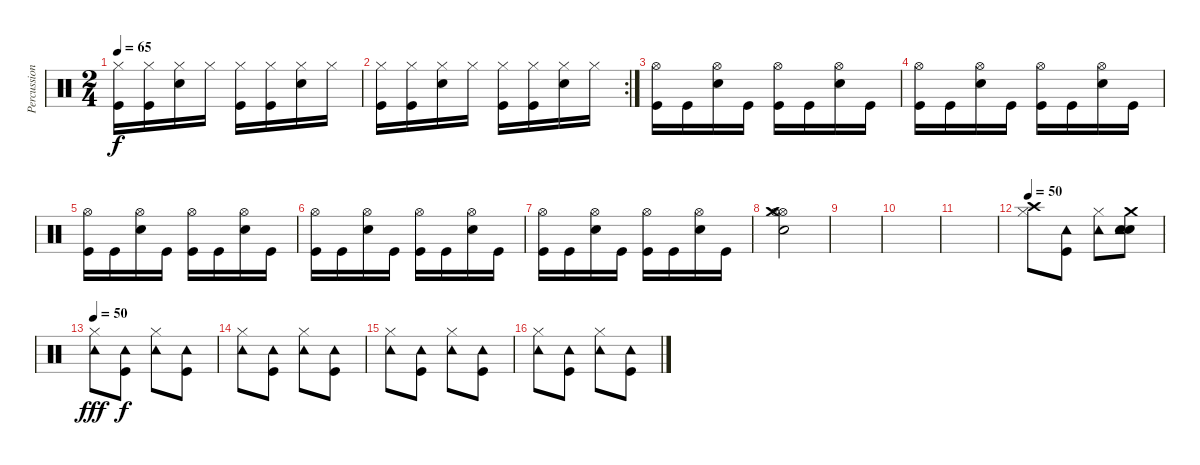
\track ("Percussion" "Percussion") {instrument percussion}
\staff {score}
\articulation defaults
\ts (2 4)
\tempo 65
\clef neutral
\ks c
("Hi-Hat (closed)" "Kick (hit)").16{dy f} ("Hi-Hat (closed)" "Kick (hit)").16 ("Hi-Hat (closed)" "Electric Snare (hit)").16 "Hi-Hat (closed)".16 ("Hi-Hat (closed)" "Kick (hit)").16 ("Hi-Hat (closed)" "Kick (hit)").16 ("Hi-Hat (closed)" "Electric Snare (hit)").16 "Hi-Hat (closed)".16 |
\rc 2
("Hi-Hat (closed)" "Kick (hit)").16 ("Hi-Hat (closed)" "Kick (hit)").16 ("Hi-Hat (closed)" "Electric Snare (hit)").16 "Hi-Hat (closed)".16 ("Hi-Hat (closed)" "Kick (hit)").16 ("Hi-Hat (closed)" "Kick (hit)").16 ("Hi-Hat (closed)" "Electric Snare (hit)").16 "Hi-Hat (closed)".16 |
("Hi-Hat (open)" "Kick (hit)").16 "Kick (hit)".16 ("Hi-Hat (open)" "Electric Snare (hit)").16 "Kick (hit)".16 ("Hi-Hat (open)" "Kick (hit)").16 "Kick (hit)".16 ("Hi-Hat (open)" "Electric Snare (hit)").16 "Kick (hit)".16 |
("Hi-Hat (open)" "Kick (hit)").16 "Kick (hit)".16 ("Hi-Hat (open)" "Electric Snare (hit)").16 "Kick (hit)".16 ("Hi-Hat (open)" "Kick (hit)").16 "Kick (hit)".16 ("Hi-Hat (open)" "Electric Snare (hit)").16 "Kick (hit)".16 |
("Hi-Hat (open)" "Kick (hit)").16 "Kick (hit)".16 ("Hi-Hat (open)" "Electric Snare (hit)").16 "Kick (hit)".16 ("Hi-Hat (open)" "Kick (hit)").16 "Kick (hit)".16 ("Hi-Hat (open)" "Electric Snare (hit)").16 "Kick (hit)".16 |
("Hi-Hat (open)" "Kick (hit)").16 "Kick (hit)".16 ("Hi-Hat (open)" "Electric Snare (hit)").16 "Kick (hit)".16 ("Hi-Hat (open)" "Kick (hit)").16 "Kick (hit)".16 ("Hi-Hat (open)" "Electric Snare (hit)").16 "Kick (hit)".16 |
("Hi-Hat (open)" "Kick (hit)").16 "Kick (hit)".16 ("Hi-Hat (open)" "Electric Snare (hit)").16 "Kick (hit)".16 ("Hi-Hat (open)" "Kick (hit)").16 "Kick (hit)".16 ("Hi-Hat (open)" "Electric Snare (hit)").16 "Kick (hit)".16 |
("Hi-Hat (open)" "Hi-Hat (open)" "Electric Snare (hit)" "Crash medium (hit)").2 |
|
|
|
\tempo 50
("Crash high (hit)" "Hi-Hat (closed)").8 ("Tambourine (hit)" "Kick (hit)").8 ("Hi-Hat (closed)" "Tambourine (hit)").8 ("Electric Snare (hit)" "Electric Snare (hit)" "Crash medium (hit)" "Tambourine (hit)").8 |
\tempo 50
("Tambourine (hit)" "Hi-Hat (closed)").8{dy fff} ("Tambourine (hit)" "Kick (hit)").8{dy f} ("Tambourine (hit)" "Hi-Hat (closed)").8 ("Tambourine (hit)" "Kick (hit)").8 |
("Tambourine (hit)" "Hi-Hat (closed)").8 ("Tambourine (hit)" "Kick (hit)").8 ("Tambourine (hit)" "Hi-Hat (closed)").8 ("Tambourine (hit)" "Kick (hit)").8 |
("Tambourine (hit)" "Hi-Hat (closed)").8 ("Tambourine (hit)" "Kick (hit)").8 ("Tambourine (hit)" "Hi-Hat (closed)").8 ("Tambourine (hit)" "Kick (hit)").8 |
("Tambourine (hit)" "Hi-Hat (closed)").8 ("Tambourine (hit)" "Kick (hit)").8 ("Tambourine (hit)" "Hi-Hat (closed)").8 ("Tambourine (hit)" "Kick (hit)").8
